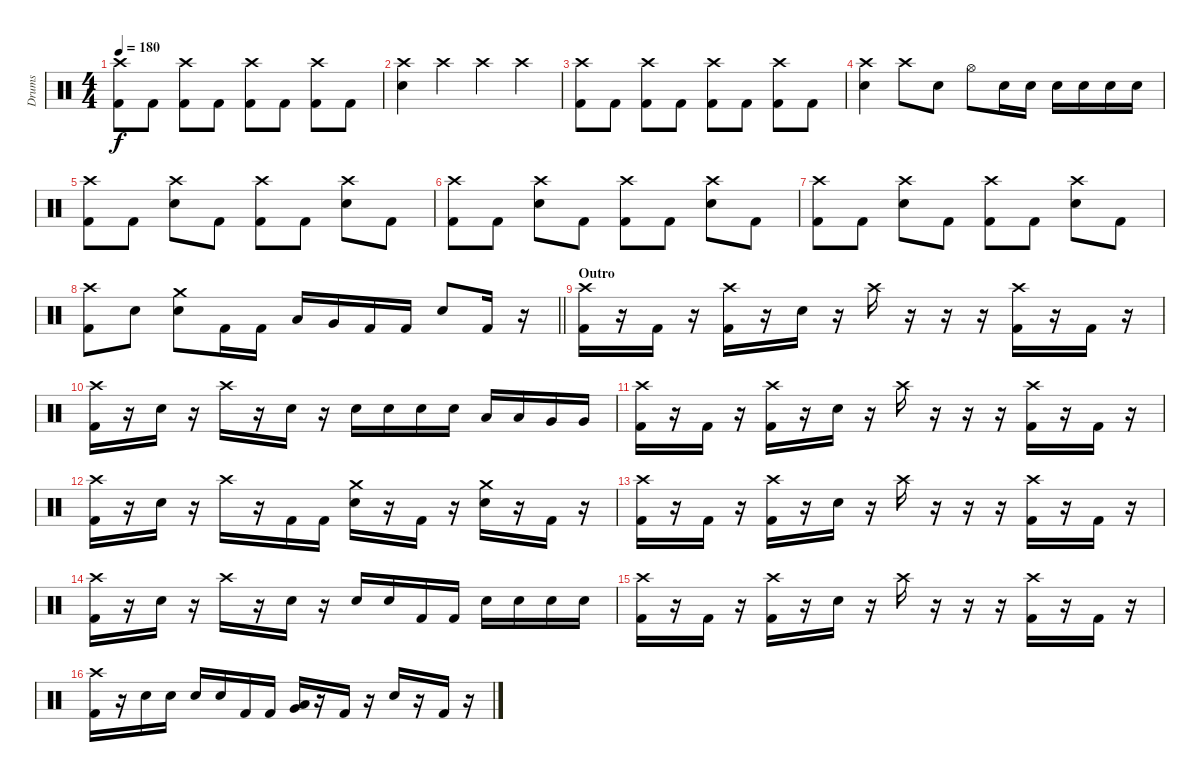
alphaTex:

\track ("Drums" "Drums") {instrument percussion}
\staff {score}
\articulation defaults
\ts (4 4)
\tempo 180
\clef neutral
\ks c
("Crash high (hit)" "Kick (hit) 2").8{dy f} "Kick (hit) 2".8 ("Crash high (hit)" "Kick (hit) 2").8 "Kick (hit) 2".8 ("Crash high (hit)" "Kick (hit) 2").8 "Kick (hit) 2".8 ("Crash high (hit)" "Kick (hit) 2").8 "Kick (hit) 2".8 |
("Crash high (hit)" "Electric Snare (hit)").4 "Crash high (hit)".4 "Crash high (hit)".4 "Crash high (hit)".4 |
("Crash high (hit)" "Kick (hit) 2").8 "Kick (hit) 2".8 ("Crash high (hit)" "Kick (hit) 2").8 "Kick (hit) 2".8 ("Crash high (hit)" "Kick (hit) 2").8 "Kick (hit) 2".8 ("Crash high (hit)" "Kick (hit) 2").8 "Kick (hit) 2".8 |
("Crash high (hit)" "Electric Snare (hit)").4 "Crash high (hit)".8 "Electric Snare (hit)".8 "Hi-Hat (open)".8 "Electric Snare (hit)".16 "Electric Snare (hit)".16 "Electric Snare (hit)".16 "Electric Snare (hit)".16 "Electric Snare (hit)".16 "Electric Snare (hit)".16 |
("Crash high (hit)" "Kick (hit) 2").8 "Kick (hit) 2".8 ("Crash high (hit)" "Electric Snare (hit)").8 "Kick (hit) 2".8 ("Crash high (hit)" "Kick (hit) 2").8 "Kick (hit) 2".8 ("Crash high (hit)" "Electric Snare (hit)").8 "Kick (hit) 2".8 |
("Crash high (hit)" "Kick (hit) 2").8 "Kick (hit) 2".8 ("Crash high (hit)" "Electric Snare (hit)").8 "Kick (hit) 2".8 ("Crash high (hit)" "Kick (hit) 2").8 "Kick (hit) 2".8 ("Crash high (hit)" "Electric Snare (hit)").8 "Kick (hit) 2".8 |
("Crash high (hit)" "Kick (hit) 2").8 "Kick (hit) 2".8 ("Crash high (hit)" "Electric Snare (hit)").8 "Kick (hit) 2".8 ("Crash high (hit)" "Kick (hit) 2").8 "Kick (hit) 2".8 ("Crash high (hit)" "Electric Snare (hit)").8 "Kick (hit) 2".8 |
\barLineRight lightlight
("Crash high (hit)" "Kick (hit) 2").8 "Electric Snare (hit)".8 ("Crash medium (hit)" "Electric Snare (hit)").8 "Kick (hit) 2".16 "Kick (hit) 2".16 "Low Tom (hit)".16 "Very Low Tom (hit)".16 "Kick (hit) 2".16 "Kick (hit) 2".16 "Electric Snare (hit)".8 "Kick (hit) 2".16 r.16 |
\section ("" "Outro")
("Crash high (hit)" "Kick (hit) 2").16 r.16 "Kick (hit) 2".16 r.16 ("Crash high (hit)" "Kick (hit) 2").16 r.16 "Electric Snare (hit)".16 r.16 "Crash high (hit)".16 r.16 r.16 r.16 ("Crash high (hit)" "Kick (hit) 2").16 r.16 "Kick (hit) 2".16 r.16 |
("Crash high (hit)" "Kick (hit) 2").16 r.16 "Electric Snare (hit)".16 r.16 "Crash high (hit)".16 r.16 "Electric Snare (hit)".16 r.16 "Electric Snare (hit)".16 "Electric Snare (hit)".16 "Electric Snare (hit)".16 "Electric Snare (hit)".16 "Low Tom (hit)".16 "Low Tom (hit)".16 "Very Low Tom (hit)".16 "Very Low Tom (hit)".16 |
("Crash high (hit)" "Kick (hit) 2").16 r.16 "Kick (hit) 2".16 r.16 ("Crash high (hit)" "Kick (hit) 2").16 r.16 "Electric Snare (hit)".16 r.16 "Crash high (hit)".16 r.16 r.16 r.16 ("Crash high (hit)" "Kick (hit) 2").16 r.16 "Kick (hit) 2".16 r.16 |
("Crash high (hit)" "Kick (hit) 2").16 r.16 "Electric Snare (hit)".16 r.16 "Crash high (hit)".16 r.16 "Kick (hit) 2".16 "Kick (hit) 2".16 ("Crash medium (hit)" "Electric Snare (hit)").16 r.16 "Kick (hit) 2".16 r.16 ("Crash medium (hit)" "Electric Snare (hit)").16 r.16 "Kick (hit) 2".16 r.16 |
("Crash high (hit)" "Kick (hit) 2").16 r.16 "Kick (hit) 2".16 r.16 ("Crash high (hit)" "Kick (hit) 2").16 r.16 "Electric Snare (hit)".16 r.16 "Crash high (hit)".16 r.16 r.16 r.16 ("Crash high (hit)" "Kick (hit) 2").16 r.16 "Kick (hit) 2".16 r.16 |
("Crash high (hit)" "Kick (hit) 2").16 r.16 "Electric Snare (hit)".16 r.16 "Crash high (hit)".16 r.16 "Electric Snare (hit)".16 r.16 "Electric Snare (hit)".16 "Electric Snare (hit)".16 "Kick (hit) 2".16 "Kick (hit) 2".16 "Electric Snare (hit)".16 "Electric Snare (hit)".16 "Electric Snare (hit)".16 "Electric Snare (hit)".16 |
("Crash high (hit)" "Kick (hit) 2").16 r.16 "Kick (hit) 2".16 r.16 ("Crash high (hit)" "Kick (hit) 2").16 r.16 "Electric Snare (hit)".16 r.16 "Crash high (hit)".16 r.16 r.16 r.16 ("Crash high (hit)" "Kick (hit) 2").16 r.16 "Kick (hit) 2".16 r.16 |
("Crash high (hit)" "Kick (hit) 2").16 r.16 "Electric Snare (hit)".16 "Electric Snare (hit)".16 "Electric Snare (hit)".16 "Electric Snare (hit)".16 "Kick (hit) 2".16 "Kick (hit) 2".16 ("Low Tom (hit)" "Very Low Tom (hit)").16 r.16 "Kick (hit) 2".16 r.16 "Electric Snare (hit)".16 r.16 "Kick (hit) 2".16 r.16
